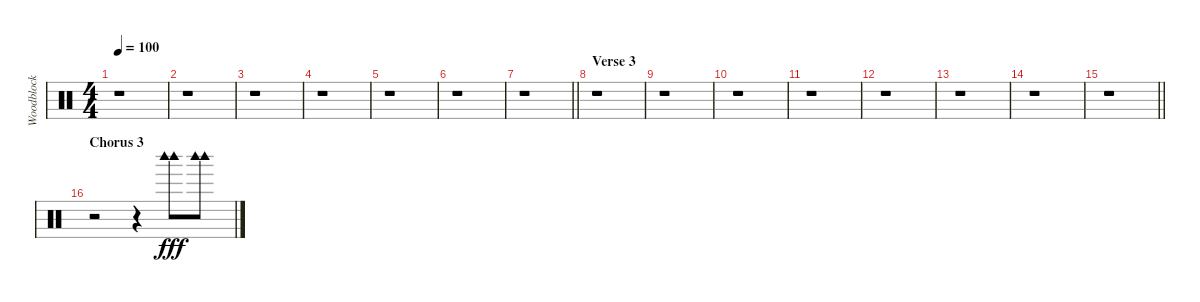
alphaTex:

\track ("Woodblock" "Woodblock") {instrument percussion}
\staff {score}
\articulation defaults
\ts (4 4)
\tempo 100
\clef neutral
\ks c
r.1{dy fff} |
r.1 |
r.1 |
r.1 |
r.1 |
r.1 |
\barLineRight lightlight
r.1 |
\section ("" "Verse 3")
r.1 |
r.1 |
r.1 |
r.1 |
r.1 |
r.1 |
r.1 |
\barLineRight lightlight
r.1 |
\section ("" "Chorus 3")
r.2 r.4 ("Woodblock high (hit)" "Woodblock high (hit)").8 ("Woodblock high (hit)" "Woodblock high (hit)").8
